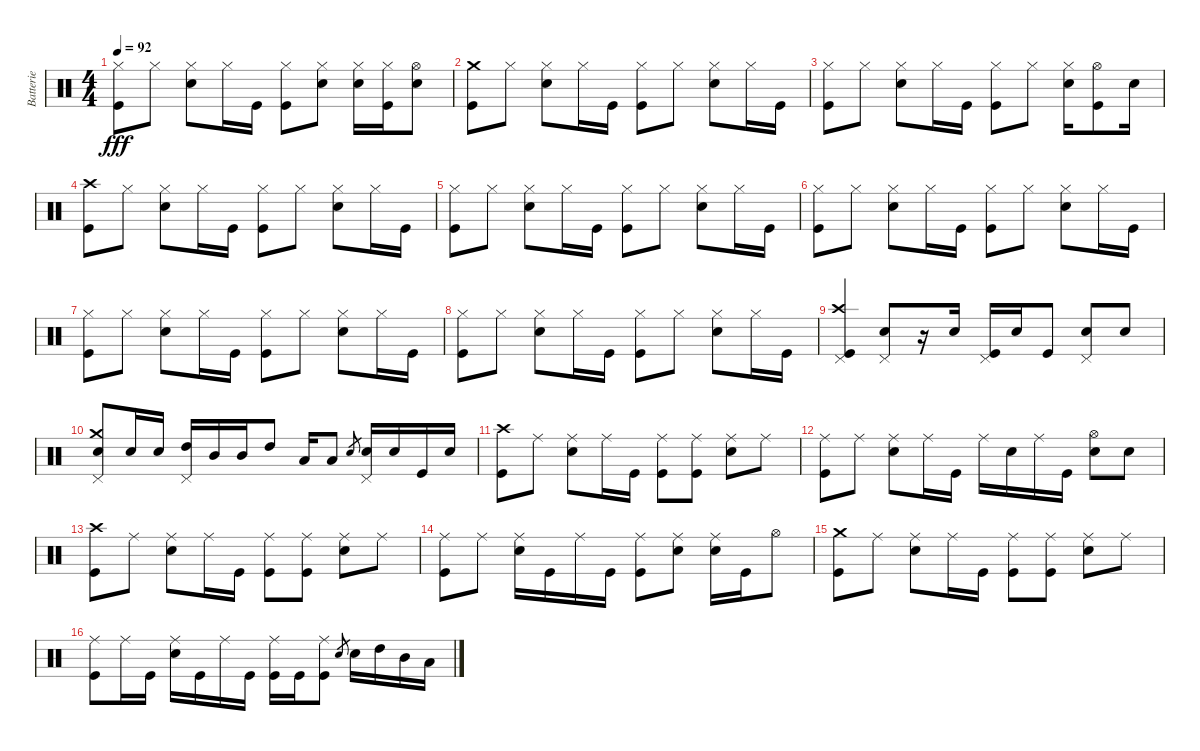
\track ("Batterie" "Batterie") {instrument percussion}
\staff {score}
\articulation defaults
\ts (4 4)
\tempo 92
\clef neutral
\ks c
("Hi-Hat (closed)" "Kick (hit)").8{dy fff} "Hi-Hat (closed)".8 ("Hi-Hat (closed)" "Electric Snare (hit)").8 "Hi-Hat (closed)".16 "Kick (hit)".16 ("Hi-Hat (closed)" "Kick (hit)").8 ("Hi-Hat (closed)" "Electric Snare (hit)").8 ("Hi-Hat (closed)" "Electric Snare (hit)").16 ("Hi-Hat (closed)" "Kick (hit)").16 ("Hi-Hat (open)" "Electric Snare (hit)").8 |
("Crash medium (hit)" "Kick (hit)").8 "Hi-Hat (closed)".8 ("Hi-Hat (closed)" "Electric Snare (hit)").8 "Hi-Hat (closed)".16 "Kick (hit)".16 ("Hi-Hat (closed)" "Kick (hit)").8 "Hi-Hat (closed)".8 ("Hi-Hat (closed)" "Electric Snare (hit)").8 "Hi-Hat (closed)".16 "Kick (hit)".16 |
("Hi-Hat (closed)" "Kick (hit)").8 "Hi-Hat (closed)".8 ("Hi-Hat (closed)" "Electric Snare (hit)").8 "Hi-Hat (closed)".16 "Kick (hit)".16 ("Hi-Hat (closed)" "Kick (hit)").8 "Hi-Hat (closed)".8 ("Hi-Hat (closed)" "Electric Snare (hit)").16 ("Hi-Hat (open)" "Kick (hit)").8 "Electric Snare (hit)".16 |
("Crash high (hit)" "Kick (hit)").8 "Hi-Hat (closed)".8 ("Hi-Hat (closed)" "Electric Snare (hit)").8 "Hi-Hat (closed)".16 "Kick (hit)".16 ("Hi-Hat (closed)" "Kick (hit)").8 "Hi-Hat (closed)".8 ("Hi-Hat (closed)" "Electric Snare (hit)").8 "Hi-Hat (closed)".16 "Kick (hit)".16 |
("Hi-Hat (closed)" "Kick (hit)").8 "Hi-Hat (closed)".8 ("Hi-Hat (closed)" "Electric Snare (hit)").8 "Hi-Hat (closed)".16 "Kick (hit)".16 ("Hi-Hat (closed)" "Kick (hit)").8 "Hi-Hat (closed)".8 ("Hi-Hat (closed)" "Electric Snare (hit)").8 "Hi-Hat (closed)".16 "Kick (hit)".16 |
("Hi-Hat (closed)" "Kick (hit)").8 "Hi-Hat (closed)".8 ("Hi-Hat (closed)" "Electric Snare (hit)").8 "Hi-Hat (closed)".16 "Kick (hit)".16 ("Hi-Hat (closed)" "Kick (hit)").8 "Hi-Hat (closed)".8 ("Hi-Hat (closed)" "Electric Snare (hit)").8 "Hi-Hat (closed)".16 "Kick (hit)".16 |
("Hi-Hat (closed)" "Kick (hit)").8 "Hi-Hat (closed)".8 ("Hi-Hat (closed)" "Electric Snare (hit)").8 "Hi-Hat (closed)".16 "Kick (hit)".16 ("Hi-Hat (closed)" "Kick (hit)").8 "Hi-Hat (closed)".8 ("Hi-Hat (closed)" "Electric Snare (hit)").8 "Hi-Hat (closed)".16 "Kick (hit)".16 |
("Hi-Hat (closed)" "Kick (hit)").8 "Hi-Hat (closed)".8 ("Hi-Hat (closed)" "Electric Snare (hit)").8 "Hi-Hat (closed)".16 "Kick (hit)".16 ("Hi-Hat (closed)" "Kick (hit)").8 "Hi-Hat (closed)".8 ("Hi-Hat (closed)" "Electric Snare (hit)").8 "Hi-Hat (closed)".16 "Kick (hit)".16 |
("Crash high (hit)" "Kick (hit)" "Pedal Hi-Hat (hit)").4 ("Electric Snare (hit)" "Pedal Hi-Hat (hit)").8 r.16 "Electric Snare (hit)".16 ("Kick (hit)" "Pedal Hi-Hat (hit)").16 "Electric Snare (hit)".16 "Kick (hit)".8 ("Electric Snare (hit)" "Pedal Hi-Hat (hit)").8 "Electric Snare (hit)".8 |
("Crash medium (hit)" "Electric Snare (hit)" "Pedal Hi-Hat (hit)").8 "Electric Snare (hit)".16 "Electric Snare (hit)".16 ("High Tom (hit)" "Pedal Hi-Hat (hit)").16 "Mid Tom (hit)".16 "Mid Tom (hit)".16 "High Tom (hit)".8 "Low Floor Tom (hit)".16 "Low Floor Tom (hit)".8 "Electric Snare (hit)".8{gr} ("Electric Snare (hit)" "Pedal Hi-Hat (hit)").16 "Electric Snare (hit)".16 "Kick (hit)".16 "Electric Snare (hit)".16 |
("Crash high (hit)" "Kick (hit)").8 "Ride (middle)".8 ("Ride (middle)" "Electric Snare (hit)").8 "Ride (middle)".16 "Kick (hit)".16 ("Ride (middle)" "Kick (hit)").8 ("Ride (middle)" "Kick (hit)").8 ("Ride (middle)" "Electric Snare (hit)").8 "Ride (middle)".8 |
("Ride (middle)" "Kick (hit)").8 "Ride (middle)".8 ("Ride (middle)" "Electric Snare (hit)").8 "Ride (middle)".16 "Kick (hit)".16 "Ride (middle)".16 "Electric Snare (hit)".16 "Ride (middle)".16 "Kick (hit)".16 ("Hi-Hat (open)" "Electric Snare (hit)").8 "Electric Snare (hit)".8 |
("Crash high (hit)" "Kick (hit)").8 "Ride (middle)".8 ("Ride (middle)" "Electric Snare (hit)").8 "Ride (middle)".16 "Kick (hit)".16 ("Ride (middle)" "Kick (hit)").8 ("Ride (middle)" "Kick (hit)").8 ("Ride (middle)" "Electric Snare (hit)").8 "Ride (middle)".8 |
("Ride (middle)" "Kick (hit)").8 "Ride (middle)".8 ("Ride (middle)" "Electric Snare (hit)").16 "Kick (hit)".16 "Ride (middle)".16 "Kick (hit)".16 ("Ride (middle)" "Kick (hit)").8 ("Ride (middle)" "Electric Snare (hit)").8 ("Ride (middle)" "Electric Snare (hit)").16 "Kick (hit)".16 "Hi-Hat (open)".8 |
("Crash medium (hit)" "Kick (hit)").8 "Ride (middle)".8 ("Ride (middle)" "Electric Snare (hit)").8 "Ride (middle)".16 "Kick (hit)".16 ("Ride (middle)" "Kick (hit)").8 ("Ride (middle)" "Kick (hit)").8 ("Ride (middle)" "Electric Snare (hit)").8 "Ride (middle)".8 |
("Ride (middle)" "Kick (hit)").8 "Ride (middle)".16 "Kick (hit)".16 ("Ride (middle)" "Electric Snare (hit)").16 "Kick (hit)".16 "Ride (middle)".16 "Kick (hit)".16 ("Ride (middle)" "Kick (hit)").16 "Kick (hit)".16 ("Ride (middle)" "Kick (hit)").8 "Electric Snare (hit)".8{gr} "Electric Snare (hit)".16 "High Tom (hit)".16 "Mid Tom (hit)".16 "Low Floor Tom (hit)".16
